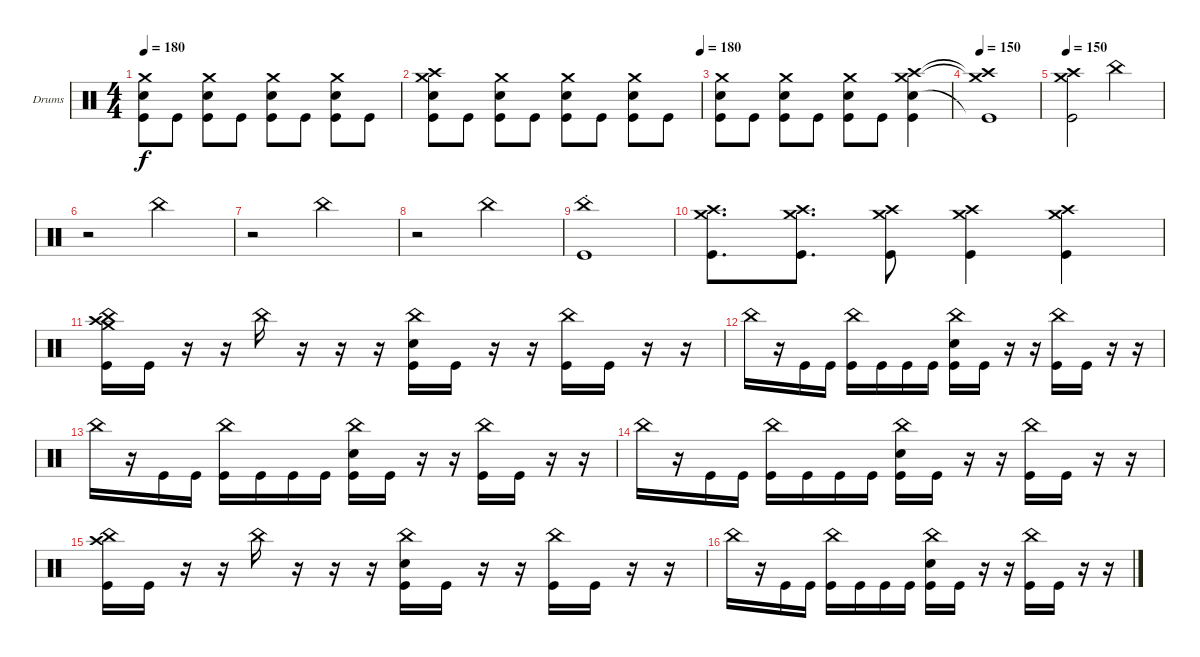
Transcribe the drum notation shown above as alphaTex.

\bracketExtendMode groupsimilarinstruments
\firstSystemTrackNameOrientation horizontal
\otherSystemsTrackNameOrientation horizontal
\track ("Drumkit" "Drums") {instrument percussion}
\staff {score}
\articulation defaults
\ts (4 4)
\tempo 180
\clef neutral
\ks c
("Crash medium (hit)" "Snare (hit) 2" "Kick (hit)").8{dy f} "Kick (hit)".8 ("Crash medium (hit)" "Snare (hit) 2" "Kick (hit)").8 "Kick (hit)".8 ("Crash medium (hit)" "Snare (hit) 2" "Kick (hit)").8 "Kick (hit)".8 ("Crash medium (hit)" "Snare (hit) 2" "Kick (hit)").8 "Kick (hit)".8 |
\tempo (180 1)
("Crash high (hit)" "Crash medium (hit)" "Snare (hit) 2" "Kick (hit)").8 "Kick (hit)".8 ("Crash medium (hit)" "Snare (hit) 2" "Kick (hit)").8 "Kick (hit)".8 ("Crash medium (hit)" "Snare (hit) 2" "Kick (hit)").8 "Kick (hit)".8 ("Crash medium (hit)" "Snare (hit) 2" "Kick (hit)").8 "Kick (hit)".8 |
("Crash medium (hit)" "Snare (hit) 2" "Kick (hit)").8 "Kick (hit)".8 ("Crash medium (hit)" "Snare (hit) 2" "Kick (hit)").8 "Kick (hit)".8 ("Crash medium (hit)" "Snare (hit) 2" "Kick (hit)").8 "Kick (hit)".8 ("Crash high (hit)" "Crash medium (hit)" "Snare (hit) 2" "Kick (hit)").4 |
\tempo (150 0.0125)
("Crash high (hit)"{t} "Crash medium (hit)"{t} "Kick (hit)"{t}).1 |
\tempo 150
("Crash high (hit)" "Crash medium (hit)" "Kick (hit)").2 "China (hit)".2 |
r.2 "China (hit)".2 |
r.2 "China (hit)".2 |
r.2 "China (hit)".2 |
("China (hit)"{st} "Kick (hit)").1 |
("Crash high (hit)" "Crash medium (hit)" "Kick (hit)").8{d} ("Crash high (hit)" "Crash medium (hit)" "Kick (hit)").8{d} ("Crash high (hit)" "Crash medium (hit)" "Kick (hit)").8 ("Crash high (hit)" "Crash medium (hit)" "Kick (hit)").4 ("Crash high (hit)" "Crash medium (hit)" "Kick (hit)").4 |
("Crash medium (hit)" "Crash high (hit)" "China (hit)" "Kick (hit)").16 "Kick (hit)".16 r.16 r.16 "China (hit)".16 r.16 r.16 r.16 ("China (hit)" "Snare (hit) 2" "Kick (hit)").16 "Kick (hit)".16 r.16 r.16 ("China (hit)" "Kick (hit)").16 "Kick (hit)".16 r.16 r.16 |
"China (hit)".16 r.16 "Kick (hit)".16 "Kick (hit)".16 ("China (hit)" "Kick (hit)").16 "Kick (hit)".16 "Kick (hit)".16 "Kick (hit)".16 ("China (hit)" "Snare (hit) 2" "Kick (hit)").16 "Kick (hit)".16 r.16 r.16 ("China (hit)" "Kick (hit)").16 "Kick (hit)".16 r.16 r.16 |
"China (hit)".16 r.16 "Kick (hit)".16 "Kick (hit)".16 ("China (hit)" "Kick (hit)").16 "Kick (hit)".16 "Kick (hit)".16 "Kick (hit)".16 ("China (hit)" "Snare (hit) 2" "Kick (hit)").16 "Kick (hit)".16 r.16 r.16 ("China (hit)" "Kick (hit)").16 "Kick (hit)".16 r.16 r.16 |
"China (hit)".16 r.16 "Kick (hit)".16 "Kick (hit)".16 ("China (hit)" "Kick (hit)").16 "Kick (hit)".16 "Kick (hit)".16 "Kick (hit)".16 ("China (hit)" "Snare (hit) 2" "Kick (hit)").16 "Kick (hit)".16 r.16 r.16 ("China (hit)" "Kick (hit)").16 "Kick (hit)".16 r.16 r.16 |
("Crash high (hit)" "China (hit)" "Kick (hit)").16 "Kick (hit)".16 r.16 r.16 "China (hit)".16 r.16 r.16 r.16 ("China (hit)" "Snare (hit) 2" "Kick (hit)").16 "Kick (hit)".16 r.16 r.16 ("China (hit)" "Kick (hit)").16 "Kick (hit)".16 r.16 r.16 |
"China (hit)".16 r.16 "Kick (hit)".16 "Kick (hit)".16 ("China (hit)" "Kick (hit)").16 "Kick (hit)".16 "Kick (hit)".16 "Kick (hit)".16 ("China (hit)" "Snare (hit) 2" "Kick (hit)").16 "Kick (hit)".16 r.16 r.16 ("China (hit)" "Kick (hit)").16 "Kick (hit)".16 r.16 r.16
